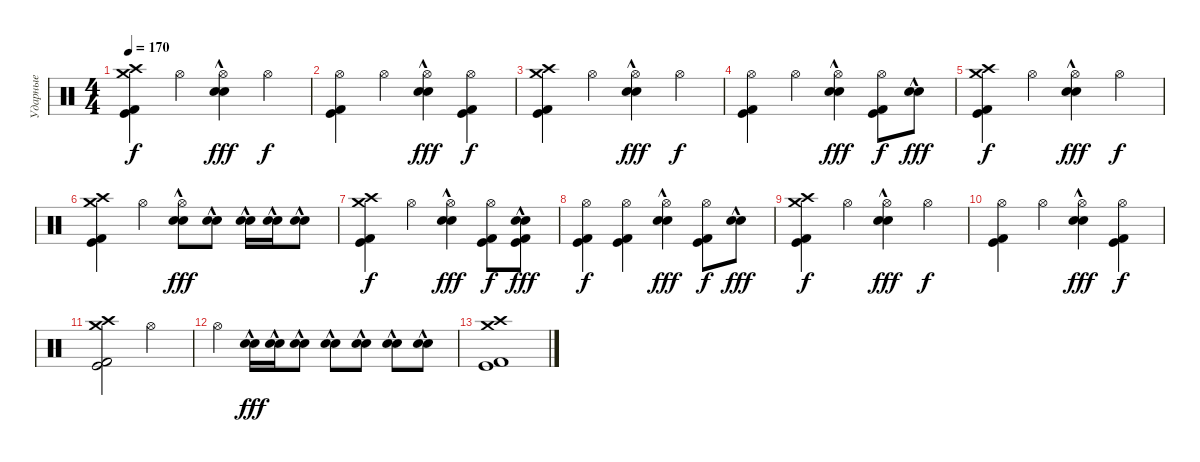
\track ("Ударные" "Ударные") {instrument percussion}
\staff {score}
\articulation defaults
\ts (4 4)
\tempo 170
\clef neutral
\ks c
("Crash high (hit)" "Kick (hit)" "Kick (hit) 2" "Crash medium (hit)").4{dy f} "Hi-Hat (open)".4 ("Hi-Hat (open)" "Snare (hit) 2"{hac} "Electric Snare (hit)"{hac}).4{dy fff} "Hi-Hat (open)".4{dy f} |
("Hi-Hat (open)" "Kick (hit)" "Kick (hit) 2").4 "Hi-Hat (open)".4 ("Hi-Hat (open)" "Snare (hit) 2"{hac} "Electric Snare (hit)"{hac}).4{dy fff} ("Hi-Hat (open)" "Kick (hit)" "Kick (hit) 2").4{dy f} |
("Crash high (hit)" "Kick (hit)" "Kick (hit) 2" "Crash medium (hit)").4 "Hi-Hat (open)".4 ("Hi-Hat (open)" "Snare (hit) 2"{hac} "Electric Snare (hit)"{hac}).4{dy fff} "Hi-Hat (open)".4{dy f} |
("Hi-Hat (open)" "Kick (hit)" "Kick (hit) 2").4 "Hi-Hat (open)".4 ("Hi-Hat (open)" "Snare (hit) 2"{hac} "Electric Snare (hit)"{hac}).4{dy fff} ("Hi-Hat (open)" "Kick (hit)" "Kick (hit) 2").8{dy f} ("Snare (hit) 2"{hac} "Electric Snare (hit)"{hac}).8{dy fff} |
("Crash high (hit)" "Kick (hit)" "Kick (hit) 2" "Crash medium (hit)").4{dy f} "Hi-Hat (open)".4 ("Hi-Hat (open)" "Snare (hit) 2"{hac} "Electric Snare (hit)"{hac}).4{dy fff} "Hi-Hat (open)".4{dy f} |
("Crash high (hit)" "Kick (hit)" "Kick (hit) 2" "Crash medium (hit)").4 "Hi-Hat (open)".4 ("Hi-Hat (open)" "Snare (hit) 2"{hac} "Electric Snare (hit)"{hac}).8{dy fff} ("Snare (hit) 2"{hac} "Electric Snare (hit)"{hac}).8 ("Snare (hit) 2"{hac} "Electric Snare (hit)"{hac}).16 ("Snare (hit) 2"{hac} "Electric Snare (hit)"{hac}).16 ("Snare (hit) 2"{hac} "Electric Snare (hit)"{hac}).8 |
("Crash high (hit)" "Kick (hit)" "Kick (hit) 2" "Crash medium (hit)").4{dy f} "Hi-Hat (open)".4 ("Hi-Hat (open)" "Snare (hit) 2"{hac} "Electric Snare (hit)"{hac}).4{dy fff} ("Hi-Hat (open)" "Kick (hit)" "Kick (hit) 2").8{dy f} ("Kick (hit)" "Kick (hit) 2" "Snare (hit) 2"{hac} "Electric Snare (hit)"{hac}).8{dy fff} |
("Hi-Hat (open)" "Kick (hit)" "Kick (hit) 2").4{dy f} ("Hi-Hat (open)" "Kick (hit)" "Kick (hit) 2").4 ("Hi-Hat (open)" "Snare (hit) 2"{hac} "Electric Snare (hit)"{hac}).4{dy fff} ("Hi-Hat (open)" "Kick (hit)" "Kick (hit) 2").8{dy f} ("Snare (hit) 2"{hac} "Electric Snare (hit)"{hac}).8{dy fff} |
("Crash high (hit)" "Kick (hit)" "Kick (hit) 2" "Crash medium (hit)").4{dy f} "Hi-Hat (open)".4 ("Hi-Hat (open)" "Snare (hit) 2"{hac} "Electric Snare (hit)"{hac}).4{dy fff} "Hi-Hat (open)".4{dy f} |
("Hi-Hat (open)" "Kick (hit)" "Kick (hit) 2").4 "Hi-Hat (open)".4 ("Hi-Hat (open)" "Snare (hit) 2"{hac} "Electric Snare (hit)"{hac}).4{dy fff} ("Hi-Hat (open)" "Kick (hit)" "Kick (hit) 2").4{dy f} |
("Crash high (hit)" "Kick (hit)" "Kick (hit) 2" "Crash medium (hit)").2 "Hi-Hat (open)".2 |
"Hi-Hat (open)".4 ("Snare (hit) 2"{hac} "Electric Snare (hit)"{hac}).16{dy fff} ("Snare (hit) 2"{hac} "Electric Snare (hit)"{hac}).16 ("Snare (hit) 2"{hac} "Electric Snare (hit)"{hac}).8 ("Snare (hit) 2"{hac} "Electric Snare (hit)"{hac}).8 ("Snare (hit) 2"{hac} "Electric Snare (hit)"{hac}).8 ("Snare (hit) 2"{hac} "Electric Snare (hit)"{hac}).8 ("Snare (hit) 2"{hac} "Electric Snare (hit)"{hac}).8 |
("Crash high (hit)" "Kick (hit)" "Kick (hit) 2" "Crash medium (hit)").1
